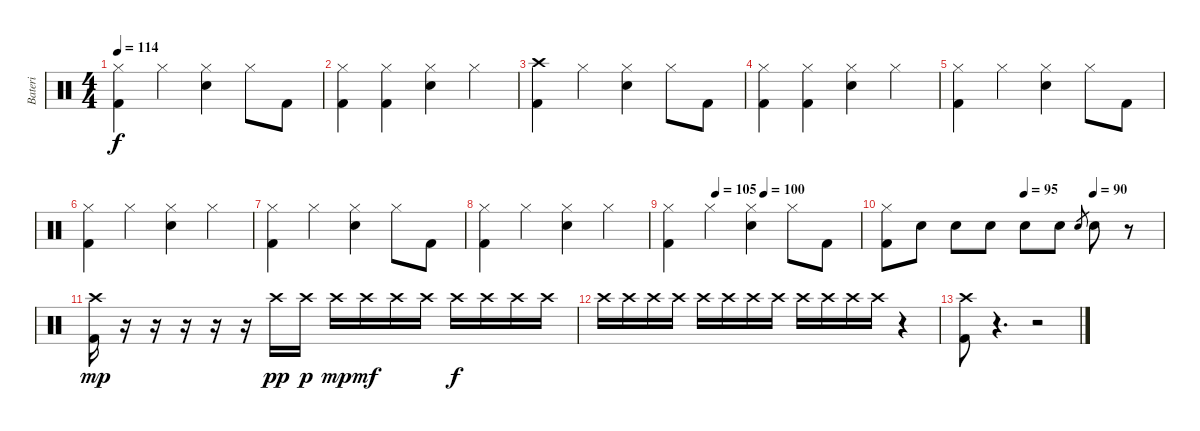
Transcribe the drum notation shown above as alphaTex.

\track ("Bateri" "Bateri") {instrument percussion}
\staff {score}
\articulation defaults
\ts (4 4)
\tempo 114
\clef neutral
\ks c
("Hi-Hat (closed)" "Kick (hit) 2").4{dy f} "Hi-Hat (closed)".4 ("Hi-Hat (closed)" "Snare (hit) 2").4 "Hi-Hat (closed)".8 "Kick (hit) 2".8 |
("Hi-Hat (closed)" "Kick (hit) 2").4 ("Hi-Hat (closed)" "Kick (hit) 2").4 ("Hi-Hat (closed)" "Snare (hit) 2").4 "Hi-Hat (closed)".4 |
("Crash high (hit)" "Kick (hit) 2").4 "Hi-Hat (closed)".4 ("Hi-Hat (closed)" "Snare (hit) 2").4 "Hi-Hat (closed)".8 "Kick (hit) 2".8 |
("Hi-Hat (closed)" "Kick (hit) 2").4 ("Hi-Hat (closed)" "Kick (hit) 2").4 ("Hi-Hat (closed)" "Snare (hit) 2").4 "Hi-Hat (closed)".4 |
("Hi-Hat (closed)" "Kick (hit) 2").4 "Hi-Hat (closed)".4 ("Hi-Hat (closed)" "Snare (hit) 2").4 "Hi-Hat (closed)".8 "Kick (hit) 2".8 |
("Hi-Hat (closed)" "Kick (hit) 2").4 "Hi-Hat (closed)".4 ("Hi-Hat (closed)" "Snare (hit) 2").4 "Hi-Hat (closed)".4 |
("Hi-Hat (closed)" "Kick (hit) 2").4 "Hi-Hat (closed)".4 ("Hi-Hat (closed)" "Snare (hit) 2").4 "Hi-Hat (closed)".8 "Kick (hit) 2".8 |
("Hi-Hat (closed)" "Kick (hit) 2").4 "Hi-Hat (closed)".4 ("Hi-Hat (closed)" "Snare (hit) 2").4 "Hi-Hat (closed)".4 |
\tempo (105 0.25)
\tempo (100 0.5)
("Hi-Hat (closed)" "Kick (hit) 2").4 "Hi-Hat (closed)".4 ("Hi-Hat (closed)" "Snare (hit) 2").4 "Hi-Hat (closed)".8 "Kick (hit) 2".8 |
\tempo (95 0.5)
\tempo (90 0.75)
("Hi-Hat (closed)" "Kick (hit) 2").8 "Snare (hit) 2".8 "Snare (hit) 2".8 "Snare (hit) 2".8 "Snare (hit) 2".8 "Snare (hit) 2".8 "Snare (hit) 2".8{gr} "Snare (hit) 2".8 r.8 |
("Crash high (hit)" "Kick (hit) 2").16{dy mp} r.16 r.16 r.16 r.16 r.16 "Crash high (hit)".16{dy pp} "Crash high (hit)".16{dy p} "Crash high (hit)".16{dy mp} "Crash high (hit)".16{dy mf} "Crash high (hit)".16 "Crash high (hit)".16 "Crash high (hit)".16{dy f} "Crash high (hit)".16 "Crash high (hit)".16 "Crash high (hit)".16 |
"Crash high (hit)".16 "Crash high (hit)".16 "Crash high (hit)".16 "Crash high (hit)".16 "Crash high (hit)".16 "Crash high (hit)".16 "Crash high (hit)".16 "Crash high (hit)".16 "Crash high (hit)".16 "Crash high (hit)".16 "Crash high (hit)".16 "Crash high (hit)".16 r.4 |
("Crash high (hit)" "Kick (hit) 2").8 r.4{d} r.2
